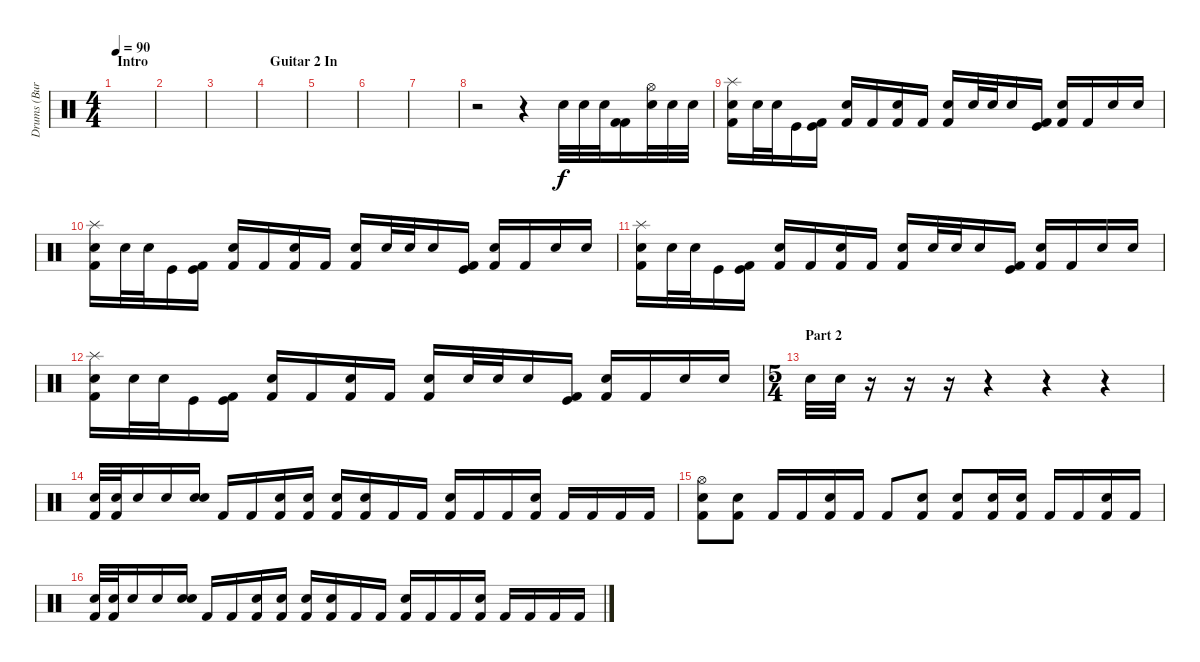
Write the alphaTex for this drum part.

\track ("Drums (Burnz)" "Drums (Bur") {instrument percussion}
\staff {score}
\articulation defaults
\ts (4 4)
\section ("" "Intro")
\tempo 90
\clef neutral
\ks c
|
|
|
\section ("" "Guitar 2 In")
|
|
|
|
r.2 r.4 "Electric Snare (hit)".32 "Electric Snare (hit)".32 "Electric Snare (hit)".32 ("Kick (hit) 2" "Kick (hit) 2").16 ("Hi-Hat (open)" "Electric Snare (hit)").32 "Electric Snare (hit)".32 "Electric Snare (hit)".32 |
("Splash (hit)" "Kick (hit) 2" "Electric Snare (hit)").16 "Electric Snare (hit)".32 "Electric Snare (hit)".32 "Kick (hit)".16 ("Kick (hit)" "Kick (hit) 2").16 ("Electric Snare (hit)" "Kick (hit) 2").16 "Kick (hit) 2".16 ("Electric Snare (hit)" "Kick (hit) 2").16 "Kick (hit) 2".16 ("Kick (hit) 2" "Electric Snare (hit)").16 "Electric Snare (hit)".32 "Electric Snare (hit)".32 "Snare (hit) 2".16 ("Kick (hit)" "Kick (hit) 2").16 ("Electric Snare (hit)" "Kick (hit) 2").16 "Kick (hit) 2".16 "Electric Snare (hit)".16 "Electric Snare (hit)".16 |
("Splash (hit)" "Kick (hit) 2" "Electric Snare (hit)").16 "Electric Snare (hit)".32 "Electric Snare (hit)".32 "Kick (hit)".16 ("Kick (hit)" "Kick (hit) 2").16 ("Electric Snare (hit)" "Kick (hit) 2").16 "Kick (hit) 2".16 ("Electric Snare (hit)" "Kick (hit) 2").16 "Kick (hit) 2".16 ("Kick (hit) 2" "Electric Snare (hit)").16 "Electric Snare (hit)".32 "Electric Snare (hit)".32 "Snare (hit) 2".16 ("Kick (hit)" "Kick (hit) 2").16 ("Electric Snare (hit)" "Kick (hit) 2").16 "Kick (hit) 2".16 "Electric Snare (hit)".16 "Electric Snare (hit)".16 |
("Splash (hit)" "Kick (hit) 2" "Electric Snare (hit)").16 "Electric Snare (hit)".32 "Electric Snare (hit)".32 "Kick (hit)".16 ("Kick (hit)" "Kick (hit) 2").16 ("Electric Snare (hit)" "Kick (hit) 2").16 "Kick (hit) 2".16 ("Electric Snare (hit)" "Kick (hit) 2").16 "Kick (hit) 2".16 ("Kick (hit) 2" "Electric Snare (hit)").16 "Electric Snare (hit)".32 "Electric Snare (hit)".32 "Snare (hit) 2".16 ("Kick (hit)" "Kick (hit) 2").16 ("Electric Snare (hit)" "Kick (hit) 2").16 "Kick (hit) 2".16 "Electric Snare (hit)".16 "Electric Snare (hit)".16 |
("Splash (hit)" "Kick (hit) 2" "Electric Snare (hit)").16 "Electric Snare (hit)".32 "Electric Snare (hit)".32 "Kick (hit)".16 ("Kick (hit)" "Kick (hit) 2").16 ("Electric Snare (hit)" "Kick (hit) 2").16 "Kick (hit) 2".16 ("Electric Snare (hit)" "Kick (hit) 2").16 "Kick (hit) 2".16 ("Kick (hit) 2" "Electric Snare (hit)").16 "Electric Snare (hit)".32 "Electric Snare (hit)".32 "Snare (hit) 2".16 ("Kick (hit)" "Kick (hit) 2").16 ("Electric Snare (hit)" "Kick (hit) 2").16 "Kick (hit) 2".16 "Electric Snare (hit)".16 "Electric Snare (hit)".16 |
\ts (5 4)
\section ("" "Part 2")
"Electric Snare (hit)".32 "Electric Snare (hit)".32 r.16 r.16 r.16 r.4 r.4 r.4 |
("Electric Snare (hit)" "Kick (hit) 2").32 ("Electric Snare (hit)" "Kick (hit) 2").32 "Electric Snare (hit)".16 "Electric Snare (hit)".16 ("Electric Snare (hit)" "Electric Snare (hit)").16 "Kick (hit) 2".16 "Kick (hit) 2".16 ("Electric Snare (hit)" "Kick (hit) 2").16 ("Electric Snare (hit)" "Kick (hit) 2").16 ("Electric Snare (hit)" "Kick (hit) 2").16 ("Electric Snare (hit)" "Kick (hit) 2").16 "Kick (hit) 2".16 "Kick (hit) 2".16 ("Electric Snare (hit)" "Kick (hit) 2").16 "Kick (hit) 2".16 "Kick (hit) 2".16 ("Electric Snare (hit)" "Kick (hit) 2").16 "Kick (hit) 2".16 "Kick (hit) 2".16 "Kick (hit) 2".16 "Kick (hit) 2".16 |
("Hi-Hat (open)" "Electric Snare (hit)" "Kick (hit) 2").8 ("Electric Snare (hit)" "Kick (hit) 2").8 "Kick (hit) 2".16 "Kick (hit) 2".16 ("Electric Snare (hit)" "Kick (hit) 2").16 "Kick (hit) 2".16 "Kick (hit) 2".8 ("Electric Snare (hit)" "Kick (hit) 2").8 ("Electric Snare (hit)" "Kick (hit) 2").8 ("Electric Snare (hit)" "Kick (hit) 2").16 ("Electric Snare (hit)" "Kick (hit) 2").16 "Kick (hit) 2".16 "Kick (hit) 2".16 ("Electric Snare (hit)" "Kick (hit) 2").16 "Kick (hit) 2".16 |
("Electric Snare (hit)" "Kick (hit) 2").32 ("Electric Snare (hit)" "Kick (hit) 2").32 "Electric Snare (hit)".16 "Electric Snare (hit)".16 ("Electric Snare (hit)" "Electric Snare (hit)").16 "Kick (hit) 2".16 "Kick (hit) 2".16 ("Electric Snare (hit)" "Kick (hit) 2").16 ("Electric Snare (hit)" "Kick (hit) 2").16 ("Electric Snare (hit)" "Kick (hit) 2").16 ("Electric Snare (hit)" "Kick (hit) 2").16 "Kick (hit) 2".16 "Kick (hit) 2".16 ("Electric Snare (hit)" "Kick (hit) 2").16 "Kick (hit) 2".16 "Kick (hit) 2".16 ("Electric Snare (hit)" "Kick (hit) 2").16 "Kick (hit) 2".16 "Kick (hit) 2".16 "Kick (hit) 2".16 "Kick (hit) 2".16
